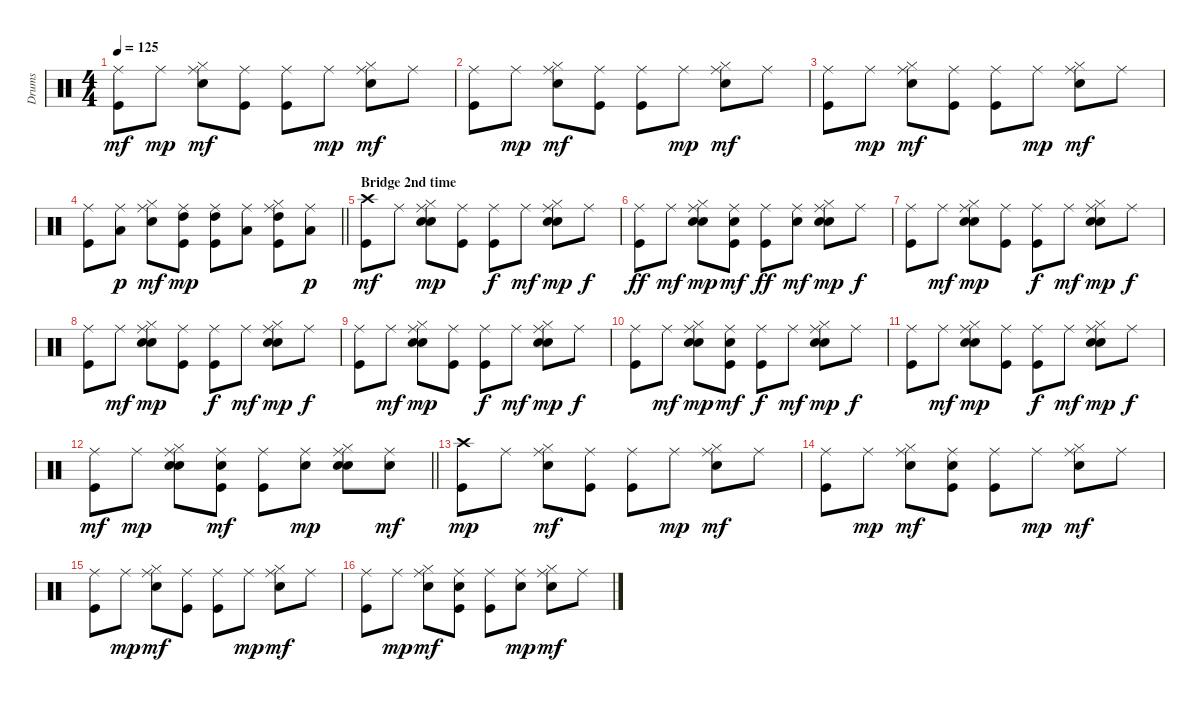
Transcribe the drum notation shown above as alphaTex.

\track ("Drums " "Drums ") {instrument percussion}
\staff {score}
\articulation defaults
\ts (4 4)
\tempo 125
\clef neutral
\ks c
("Kick (hit)" "Ride (middle)").8{dy mf} "Ride (middle)".8{dy mp} ("Snare (hit) 2" "Hi-Hat (closed)" "Ride (middle)").8{dy mf} ("Kick (hit)" "Ride (middle)").8 ("Kick (hit)" "Ride (middle)").8 "Ride (middle)".8{dy mp} ("Snare (hit) 2" "Hi-Hat (closed)" "Ride (middle)").8{dy mf} "Ride (middle)".8 |
("Kick (hit)" "Ride (middle)").8 "Ride (middle)".8{dy mp} ("Snare (hit) 2" "Hi-Hat (closed)" "Ride (middle)").8{dy mf} ("Kick (hit)" "Ride (middle)").8 ("Kick (hit)" "Ride (middle)").8 "Ride (middle)".8{dy mp} ("Snare (hit) 2" "Hi-Hat (closed)" "Ride (middle)").8{dy mf} "Ride (middle)".8 |
("Kick (hit)" "Ride (middle)").8 "Ride (middle)".8{dy mp} ("Snare (hit) 2" "Hi-Hat (closed)" "Ride (middle)").8{dy mf} ("Kick (hit)" "Ride (middle)").8 ("Kick (hit)" "Ride (middle)").8 "Ride (middle)".8{dy mp} ("Snare (hit) 2" "Hi-Hat (closed)" "Ride (middle)").8{dy mf} "Ride (middle)".8 |
\barLineRight lightlight
("Kick (hit)" "Ride (middle)").8 ("Ride (middle)" "Low Tom (hit)").8{dy p} ("Snare (hit) 2" "Hi-Hat (closed)" "Ride (middle)").8{dy mf} ("Kick (hit)" "Ride (middle)" "High Tom (hit)").8{dy mp} ("Kick (hit)" "Ride (middle)" "High Tom (hit)").8 ("Ride (middle)" "Low Tom (hit)").8 ("Kick (hit)" "Hi-Hat (closed)" "Ride (middle)" "High Tom (hit)").8 ("Ride (middle)" "Low Tom (hit)").8{dy p} |
\section ("" "Bridge 2nd time")
("Kick (hit)" "Crash high (hit)").8{dy mf} "Ride (middle)".8 ("Snare (hit) 2" "Hi-Hat (closed)" "Ride (middle)" "Hand Clap (hit)").8{dy mp} ("Kick (hit)" "Ride (middle)").8 ("Kick (hit)" "Ride (middle)").8{dy f} "Ride (middle)".8{dy mf} ("Snare (hit) 2" "Hi-Hat (closed)" "Ride (middle)" "Hand Clap (hit)").8{dy mp} "Ride (middle)".8{dy f} |
("Kick (hit)" "Ride (middle)").8{dy ff} "Ride (middle)".8{dy mf} ("Snare (hit) 2" "Hi-Hat (closed)" "Ride (middle)" "Hand Clap (hit)").8{dy mp} ("Kick (hit)" "Snare (hit) 2" "Ride (middle)").8{dy mf} ("Kick (hit)" "Ride (middle)").8{dy ff} ("Snare (hit) 2" "Ride (middle)").8{dy mf} ("Snare (hit) 2" "Hi-Hat (closed)" "Ride (middle)" "Hand Clap (hit)").8{dy mp} "Ride (middle)".8{dy f} |
("Kick (hit)" "Ride (middle)").8 "Ride (middle)".8{dy mf} ("Snare (hit) 2" "Hi-Hat (closed)" "Ride (middle)" "Hand Clap (hit)").8{dy mp} ("Kick (hit)" "Ride (middle)").8 ("Kick (hit)" "Ride (middle)").8{dy f} "Ride (middle)".8{dy mf} ("Snare (hit) 2" "Hi-Hat (closed)" "Ride (middle)" "Hand Clap (hit)").8{dy mp} "Ride (middle)".8{dy f} |
("Kick (hit)" "Ride (middle)").8 "Ride (middle)".8{dy mf} ("Snare (hit) 2" "Hi-Hat (closed)" "Ride (middle)" "Hand Clap (hit)").8{dy mp} ("Kick (hit)" "Ride (middle)").8 ("Kick (hit)" "Ride (middle)").8{dy f} "Ride (middle)".8{dy mf} ("Snare (hit) 2" "Hi-Hat (closed)" "Ride (middle)" "Hand Clap (hit)").8{dy mp} "Ride (middle)".8{dy f} |
("Kick (hit)" "Ride (middle)").8 "Ride (middle)".8{dy mf} ("Snare (hit) 2" "Hi-Hat (closed)" "Ride (middle)" "Hand Clap (hit)").8{dy mp} ("Kick (hit)" "Ride (middle)").8 ("Kick (hit)" "Ride (middle)").8{dy f} "Ride (middle)".8{dy mf} ("Snare (hit) 2" "Hi-Hat (closed)" "Ride (middle)" "Hand Clap (hit)").8{dy mp} "Ride (middle)".8{dy f} |
("Kick (hit)" "Ride (middle)").8 "Ride (middle)".8{dy mf} ("Snare (hit) 2" "Hi-Hat (closed)" "Ride (middle)" "Hand Clap (hit)").8{dy mp} ("Kick (hit)" "Snare (hit) 2" "Ride (middle)").8{dy mf} ("Kick (hit)" "Ride (middle)").8{dy f} "Ride (middle)".8{dy mf} ("Snare (hit) 2" "Hi-Hat (closed)" "Ride (middle)" "Hand Clap (hit)").8{dy mp} "Ride (middle)".8{dy f} |
("Kick (hit)" "Ride (middle)").8 "Ride (middle)".8{dy mf} ("Snare (hit) 2" "Hi-Hat (closed)" "Ride (middle)" "Hand Clap (hit)").8{dy mp} ("Kick (hit)" "Ride (middle)").8 ("Kick (hit)" "Ride (middle)").8{dy f} "Ride (middle)".8{dy mf} ("Snare (hit) 2" "Hi-Hat (closed)" "Ride (middle)" "Hand Clap (hit)").8{dy mp} "Ride (middle)".8{dy f} |
\barLineRight lightlight
("Kick (hit)" "Ride (middle)").8{dy mf} "Ride (middle)".8{dy mp} ("Snare (hit) 2" "Hi-Hat (closed)" "Ride (middle)" "Hand Clap (hit)").8 ("Kick (hit)" "Snare (hit) 2" "Ride (middle)").8{dy mf} ("Kick (hit)" "Ride (middle)").8 ("Snare (hit) 2" "Ride (middle)").8{dy mp} ("Snare (hit) 2" "Hi-Hat (closed)" "Ride (middle)" "Hand Clap (hit)").8 ("Snare (hit) 2" "Ride (middle)").8{dy mf} |
("Kick (hit)" "Crash high (hit)").8{dy mp} "Ride (middle)".8 ("Snare (hit) 2" "Hi-Hat (closed)" "Ride (middle)").8{dy mf} ("Kick (hit)" "Ride (middle)").8 ("Kick (hit)" "Ride (middle)").8 "Ride (middle)".8{dy mp} ("Snare (hit) 2" "Hi-Hat (closed)" "Ride (middle)").8{dy mf} "Ride (middle)".8 |
("Kick (hit)" "Ride (middle)").8 "Ride (middle)".8{dy mp} ("Snare (hit) 2" "Hi-Hat (closed)" "Ride (middle)").8{dy mf} ("Kick (hit)" "Snare (hit) 2" "Ride (middle)").8 ("Kick (hit)" "Ride (middle)").8 "Ride (middle)".8{dy mp} ("Snare (hit) 2" "Hi-Hat (closed)" "Ride (middle)").8{dy mf} "Ride (middle)".8 |
("Kick (hit)" "Ride (middle)").8 "Ride (middle)".8{dy mp} ("Snare (hit) 2" "Hi-Hat (closed)" "Ride (middle)").8{dy mf} ("Kick (hit)" "Ride (middle)").8 ("Kick (hit)" "Ride (middle)").8 "Ride (middle)".8{dy mp} ("Snare (hit) 2" "Hi-Hat (closed)" "Ride (middle)").8{dy mf} "Ride (middle)".8 |
("Kick (hit)" "Ride (middle)").8 "Ride (middle)".8{dy mp} ("Snare (hit) 2" "Hi-Hat (closed)" "Ride (middle)").8{dy mf} ("Kick (hit)" "Snare (hit) 2" "Ride (middle)").8 ("Kick (hit)" "Ride (middle)").8 ("Snare (hit) 2" "Ride (middle)").8{dy mp} ("Snare (hit) 2" "Hi-Hat (closed)" "Ride (middle)").8{dy mf} "Ride (middle)".8
